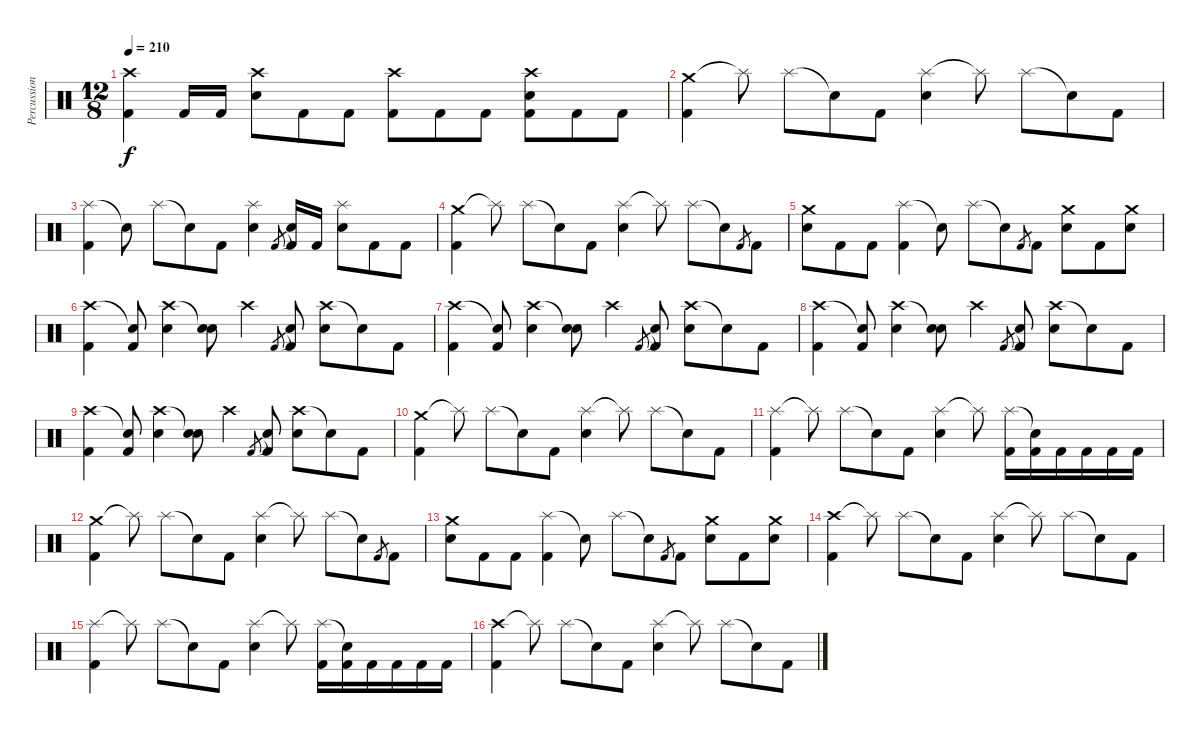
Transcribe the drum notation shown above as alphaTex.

\track ("Percussions" "Percussion") {instrument percussion}
\staff {score}
\articulation defaults
\ts (12 8)
\tempo 210
\clef neutral
\ks c
("Crash high (hit)" "Kick (hit) 2").4{dy f} "Kick (hit) 2".16 "Kick (hit) 2".16 ("Crash high (hit)" "Snare (hit) 2").8 "Kick (hit) 2".8 "Kick (hit) 2".8 ("Crash high (hit)" "Kick (hit) 2").8 "Kick (hit) 2".8 "Kick (hit) 2".8 ("Crash high (hit)" "Snare (hit) 2" "Kick (hit) 2").8 "Kick (hit) 2".8 "Kick (hit) 2".8 |
("Crash medium (hit)" "Kick (hit) 2").4 "Splash (hit)"{t}.8 "Splash (hit)".8 "Snare (hit)"{t}.8 "Kick (hit) 2".8 ("Splash (hit)" "Snare (hit) 2").4 "Splash (hit)"{t}.8 "Splash (hit)".8 "Snare (hit)"{t}.8 "Kick (hit) 2".8 |
("Splash (hit)" "Kick (hit) 2").4 "Snare (hit)"{t}.8 "Splash (hit)".8 "Snare (hit)"{t}.8 "Kick (hit) 2".8 ("Splash (hit)" "Snare (hit) 2").4 "Kick (hit) 2".8{gr} ("Snare (hit)"{t} "Kick (hit) 2").16 "Kick (hit) 2".16 ("Splash (hit)" "Snare (hit) 2").8 "Kick (hit) 2".8 "Kick (hit) 2".8 |
("Crash medium (hit)" "Kick (hit) 2").4 "Splash (hit)"{t}.8 "Splash (hit)".8 "Snare (hit)"{t}.8 "Kick (hit) 2".8 ("Splash (hit)" "Snare (hit) 2").4 "Splash (hit)"{t}.8 "Splash (hit)".8 "Snare (hit)"{t}.8 "Kick (hit) 2".8{gr} "Kick (hit) 2".8 |
("Crash medium (hit)" "Snare (hit) 2").8 "Kick (hit) 2".8 "Kick (hit) 2".8 ("Splash (hit)" "Kick (hit) 2").4 "Snare (hit)"{t}.8 "Splash (hit)".8 "Snare (hit)"{t}.8 "Kick (hit) 2".8{gr} "Kick (hit) 2".8 ("Crash medium (hit)" "Snare (hit) 2").8 "Kick (hit) 2".8 ("Crash medium (hit)" "Snare (hit) 2").8 |
("Crash high (hit)" "Kick (hit) 2").4 ("Snare (hit)"{t} "Kick (hit) 2").8 ("Crash high (hit)" "Snare (hit) 2").4 ("Snare (hit)"{t} "Snare (hit) 2").8 "Crash high (hit)".4 "Kick (hit) 2".8{gr} ("Snare (hit)"{t} "Kick (hit) 2").8 ("Crash high (hit)" "Snare (hit) 2").8 "Snare (hit)"{t}.8 "Kick (hit) 2".8 |
("Crash high (hit)" "Kick (hit) 2").4 ("Snare (hit)"{t} "Kick (hit) 2").8 ("Crash high (hit)" "Snare (hit) 2").4 ("Snare (hit)"{t} "Snare (hit) 2").8 "Crash high (hit)".4 "Kick (hit) 2".8{gr} ("Snare (hit)"{t} "Kick (hit) 2").8 ("Crash high (hit)" "Snare (hit) 2").8 "Snare (hit)"{t}.8 "Kick (hit) 2".8 |
("Crash high (hit)" "Kick (hit) 2").4 ("Snare (hit)"{t} "Kick (hit) 2").8 ("Crash high (hit)" "Snare (hit) 2").4 ("Snare (hit)"{t} "Snare (hit) 2").8 "Crash high (hit)".4 "Kick (hit) 2".8{gr} ("Snare (hit)"{t} "Kick (hit) 2").8 ("Crash high (hit)" "Snare (hit) 2").8 "Snare (hit)"{t}.8 "Kick (hit) 2".8 |
("Crash high (hit)" "Kick (hit) 2").4 ("Snare (hit)"{t} "Kick (hit) 2").8 ("Crash high (hit)" "Snare (hit) 2").4 ("Snare (hit)"{t} "Snare (hit) 2").8 "Crash high (hit)".4 "Kick (hit) 2".8{gr} ("Snare (hit)"{t} "Kick (hit) 2").8 ("Crash high (hit)" "Snare (hit) 2").8 "Snare (hit)"{t}.8 "Kick (hit) 2".8 |
("Crash medium (hit)" "Kick (hit) 2").4 "Splash (hit)"{t}.8 "Splash (hit)".8 "Snare (hit)"{t}.8 "Kick (hit) 2".8 ("Splash (hit)" "Snare (hit) 2").4 "Splash (hit)"{t}.8 "Splash (hit)".8 "Snare (hit)"{t}.8 "Kick (hit) 2".8 |
("Splash (hit)" "Kick (hit) 2").4 "Splash (hit)"{t}.8 "Splash (hit)".8 "Snare (hit)"{t}.8 "Kick (hit) 2".8 ("Splash (hit)" "Snare (hit) 2").4 "Splash (hit)"{t}.8 ("Splash (hit)" "Kick (hit) 2").16 ("Snare (hit)"{t} "Kick (hit) 2").16 "Kick (hit) 2".16 "Kick (hit) 2".16 "Kick (hit) 2".16 "Kick (hit) 2".16 |
("Crash medium (hit)" "Kick (hit) 2").4 "Splash (hit)"{t}.8 "Splash (hit)".8 "Snare (hit)"{t}.8 "Kick (hit) 2".8 ("Splash (hit)" "Snare (hit) 2").4 "Splash (hit)"{t}.8 "Splash (hit)".8 "Snare (hit)"{t}.8 "Kick (hit) 2".8{gr} "Kick (hit) 2".8 |
("Crash medium (hit)" "Snare (hit) 2").8 "Kick (hit) 2".8 "Kick (hit) 2".8 ("Splash (hit)" "Kick (hit) 2").4 "Snare (hit)"{t}.8 "Splash (hit)".8 "Snare (hit)"{t}.8 "Kick (hit) 2".8{gr} "Kick (hit) 2".8 ("Crash medium (hit)" "Snare (hit) 2").8 "Kick (hit) 2".8 ("Crash medium (hit)" "Snare (hit) 2").8 |
("Crash high (hit)" "Kick (hit) 2").4 "Splash (hit)"{t}.8 "Splash (hit)".8 "Snare (hit)"{t}.8 "Kick (hit) 2".8 ("Splash (hit)" "Snare (hit) 2").4 "Splash (hit)"{t}.8 "Splash (hit)".8 "Snare (hit)"{t}.8 "Kick (hit) 2".8 |
("Splash (hit)" "Kick (hit) 2").4 "Splash (hit)"{t}.8 "Splash (hit)".8 "Snare (hit)"{t}.8 "Kick (hit) 2".8 ("Splash (hit)" "Snare (hit) 2").4 "Splash (hit)"{t}.8 ("Splash (hit)" "Kick (hit) 2").16 ("Snare (hit)"{t} "Kick (hit) 2").16 "Kick (hit) 2".16 "Kick (hit) 2".16 "Kick (hit) 2".16 "Kick (hit) 2".16 |
("Crash high (hit)" "Kick (hit) 2").4 "Splash (hit)"{t}.8 "Splash (hit)".8 "Snare (hit)"{t}.8 "Kick (hit) 2".8 ("Splash (hit)" "Snare (hit) 2").4 "Splash (hit)"{t}.8 "Splash (hit)".8 "Snare (hit)"{t}.8 "Kick (hit) 2".8
